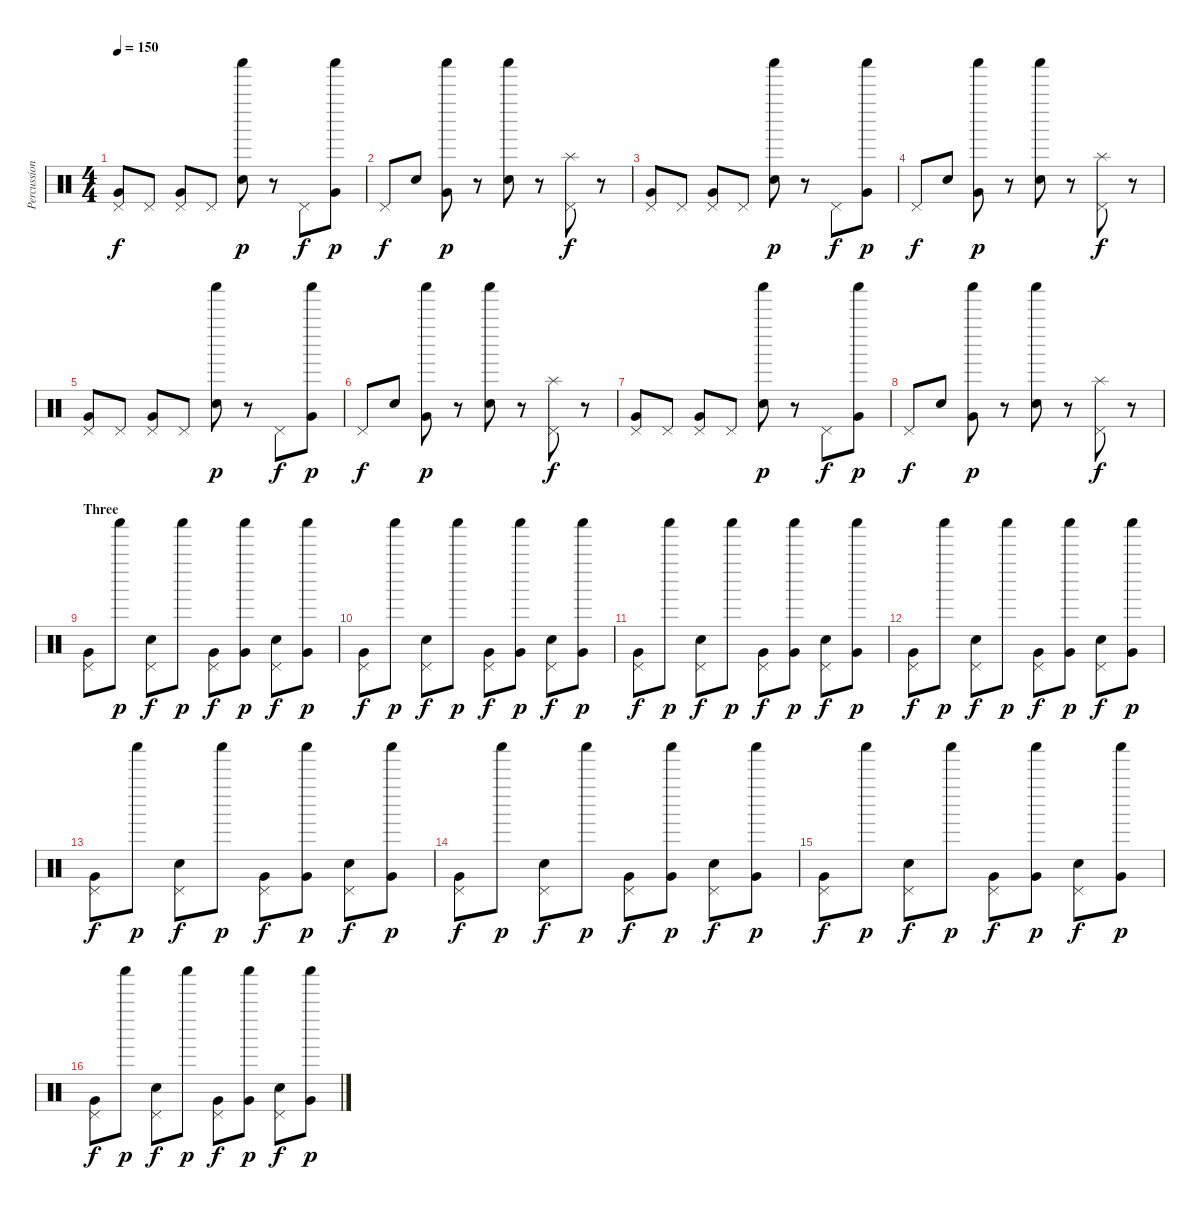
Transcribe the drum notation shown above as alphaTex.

\track ("Percussion" "Percussion") {instrument percussion}
\staff {score}
\articulation defaults
\ts (4 4)
\tempo 150
\clef neutral
\ks c
("Very Low Tom (hit)" "Pedal Hi-Hat (hit)").8{dy f} "Pedal Hi-Hat (hit)".8 ("Very Low Tom (hit)" "Pedal Hi-Hat (hit)").8 "Pedal Hi-Hat (hit)".8 ("Snare (hit) 2" "Shaker (hit)").8{dy p} r.8 "Pedal Hi-Hat (hit)".8{dy f} ("Very Low Tom (hit)" "Shaker (hit)").8{dy p} |
"Pedal Hi-Hat (hit)".8{dy f} "Snare (hit) 2".8 ("Very Low Tom (hit)" "Shaker (hit)").8{dy p} r.8 ("Snare (hit) 2" "Shaker (hit)").8 r.8 ("Pedal Hi-Hat (hit)" "Splash (hit)").8{dy f} r.8 |
("Very Low Tom (hit)" "Pedal Hi-Hat (hit)").8 "Pedal Hi-Hat (hit)".8 ("Very Low Tom (hit)" "Pedal Hi-Hat (hit)").8 "Pedal Hi-Hat (hit)".8 ("Snare (hit) 2" "Shaker (hit)").8{dy p} r.8 "Pedal Hi-Hat (hit)".8{dy f} ("Very Low Tom (hit)" "Shaker (hit)").8{dy p} |
"Pedal Hi-Hat (hit)".8{dy f} "Snare (hit) 2".8 ("Very Low Tom (hit)" "Shaker (hit)").8{dy p} r.8 ("Snare (hit) 2" "Shaker (hit)").8 r.8 ("Pedal Hi-Hat (hit)" "Splash (hit)").8{dy f} r.8 |
("Very Low Tom (hit)" "Pedal Hi-Hat (hit)").8 "Pedal Hi-Hat (hit)".8 ("Very Low Tom (hit)" "Pedal Hi-Hat (hit)").8 "Pedal Hi-Hat (hit)".8 ("Snare (hit) 2" "Shaker (hit)").8{dy p} r.8 "Pedal Hi-Hat (hit)".8{dy f} ("Very Low Tom (hit)" "Shaker (hit)").8{dy p} |
"Pedal Hi-Hat (hit)".8{dy f} "Snare (hit) 2".8 ("Very Low Tom (hit)" "Shaker (hit)").8{dy p} r.8 ("Snare (hit) 2" "Shaker (hit)").8 r.8 ("Pedal Hi-Hat (hit)" "Splash (hit)").8{dy f} r.8 |
("Very Low Tom (hit)" "Pedal Hi-Hat (hit)").8 "Pedal Hi-Hat (hit)".8 ("Very Low Tom (hit)" "Pedal Hi-Hat (hit)").8 "Pedal Hi-Hat (hit)".8 ("Snare (hit) 2" "Shaker (hit)").8{dy p} r.8 "Pedal Hi-Hat (hit)".8{dy f} ("Very Low Tom (hit)" "Shaker (hit)").8{dy p} |
"Pedal Hi-Hat (hit)".8{dy f} "Snare (hit) 2".8 ("Very Low Tom (hit)" "Shaker (hit)").8{dy p} r.8 ("Snare (hit) 2" "Shaker (hit)").8 r.8 ("Pedal Hi-Hat (hit)" "Splash (hit)").8{dy f} r.8 |
\section ("" "Three")
("Very Low Tom (hit)" "Pedal Hi-Hat (hit)").8 "Shaker (hit)".8{dy p} ("Snare (hit) 2" "Pedal Hi-Hat (hit)").8{dy f} "Shaker (hit)".8{dy p} ("Very Low Tom (hit)" "Pedal Hi-Hat (hit)").8{dy f} ("Very Low Tom (hit)" "Shaker (hit)").8{dy p} ("Snare (hit) 2" "Pedal Hi-Hat (hit)").8{dy f} ("Very Low Tom (hit)" "Shaker (hit)").8{dy p} |
("Very Low Tom (hit)" "Pedal Hi-Hat (hit)").8{dy f} "Shaker (hit)".8{dy p} ("Snare (hit) 2" "Pedal Hi-Hat (hit)").8{dy f} "Shaker (hit)".8{dy p} ("Very Low Tom (hit)" "Pedal Hi-Hat (hit)").8{dy f} ("Very Low Tom (hit)" "Shaker (hit)").8{dy p} ("Snare (hit) 2" "Pedal Hi-Hat (hit)").8{dy f} ("Very Low Tom (hit)" "Shaker (hit)").8{dy p} |
("Very Low Tom (hit)" "Pedal Hi-Hat (hit)").8{dy f} "Shaker (hit)".8{dy p} ("Snare (hit) 2" "Pedal Hi-Hat (hit)").8{dy f} "Shaker (hit)".8{dy p} ("Very Low Tom (hit)" "Pedal Hi-Hat (hit)").8{dy f} ("Very Low Tom (hit)" "Shaker (hit)").8{dy p} ("Snare (hit) 2" "Pedal Hi-Hat (hit)").8{dy f} ("Very Low Tom (hit)" "Shaker (hit)").8{dy p} |
("Very Low Tom (hit)" "Pedal Hi-Hat (hit)").8{dy f} "Shaker (hit)".8{dy p} ("Snare (hit) 2" "Pedal Hi-Hat (hit)").8{dy f} "Shaker (hit)".8{dy p} ("Very Low Tom (hit)" "Pedal Hi-Hat (hit)").8{dy f} ("Very Low Tom (hit)" "Shaker (hit)").8{dy p} ("Snare (hit) 2" "Pedal Hi-Hat (hit)").8{dy f} ("Very Low Tom (hit)" "Shaker (hit)").8{dy p} |
("Very Low Tom (hit)" "Pedal Hi-Hat (hit)").8{dy f} "Shaker (hit)".8{dy p} ("Snare (hit) 2" "Pedal Hi-Hat (hit)").8{dy f} "Shaker (hit)".8{dy p} ("Very Low Tom (hit)" "Pedal Hi-Hat (hit)").8{dy f} ("Very Low Tom (hit)" "Shaker (hit)").8{dy p} ("Snare (hit) 2" "Pedal Hi-Hat (hit)").8{dy f} ("Very Low Tom (hit)" "Shaker (hit)").8{dy p} |
("Very Low Tom (hit)" "Pedal Hi-Hat (hit)").8{dy f} "Shaker (hit)".8{dy p} ("Snare (hit) 2" "Pedal Hi-Hat (hit)").8{dy f} "Shaker (hit)".8{dy p} ("Very Low Tom (hit)" "Pedal Hi-Hat (hit)").8{dy f} ("Very Low Tom (hit)" "Shaker (hit)").8{dy p} ("Snare (hit) 2" "Pedal Hi-Hat (hit)").8{dy f} ("Very Low Tom (hit)" "Shaker (hit)").8{dy p} |
("Very Low Tom (hit)" "Pedal Hi-Hat (hit)").8{dy f} "Shaker (hit)".8{dy p} ("Snare (hit) 2" "Pedal Hi-Hat (hit)").8{dy f} "Shaker (hit)".8{dy p} ("Very Low Tom (hit)" "Pedal Hi-Hat (hit)").8{dy f} ("Very Low Tom (hit)" "Shaker (hit)").8{dy p} ("Snare (hit) 2" "Pedal Hi-Hat (hit)").8{dy f} ("Very Low Tom (hit)" "Shaker (hit)").8{dy p} |
("Very Low Tom (hit)" "Pedal Hi-Hat (hit)").8{dy f} "Shaker (hit)".8{dy p} ("Snare (hit) 2" "Pedal Hi-Hat (hit)").8{dy f} "Shaker (hit)".8{dy p} ("Very Low Tom (hit)" "Pedal Hi-Hat (hit)").8{dy f} ("Very Low Tom (hit)" "Shaker (hit)").8{dy p} ("Snare (hit) 2" "Pedal Hi-Hat (hit)").8{dy f} ("Very Low Tom (hit)" "Shaker (hit)").8{dy p}
